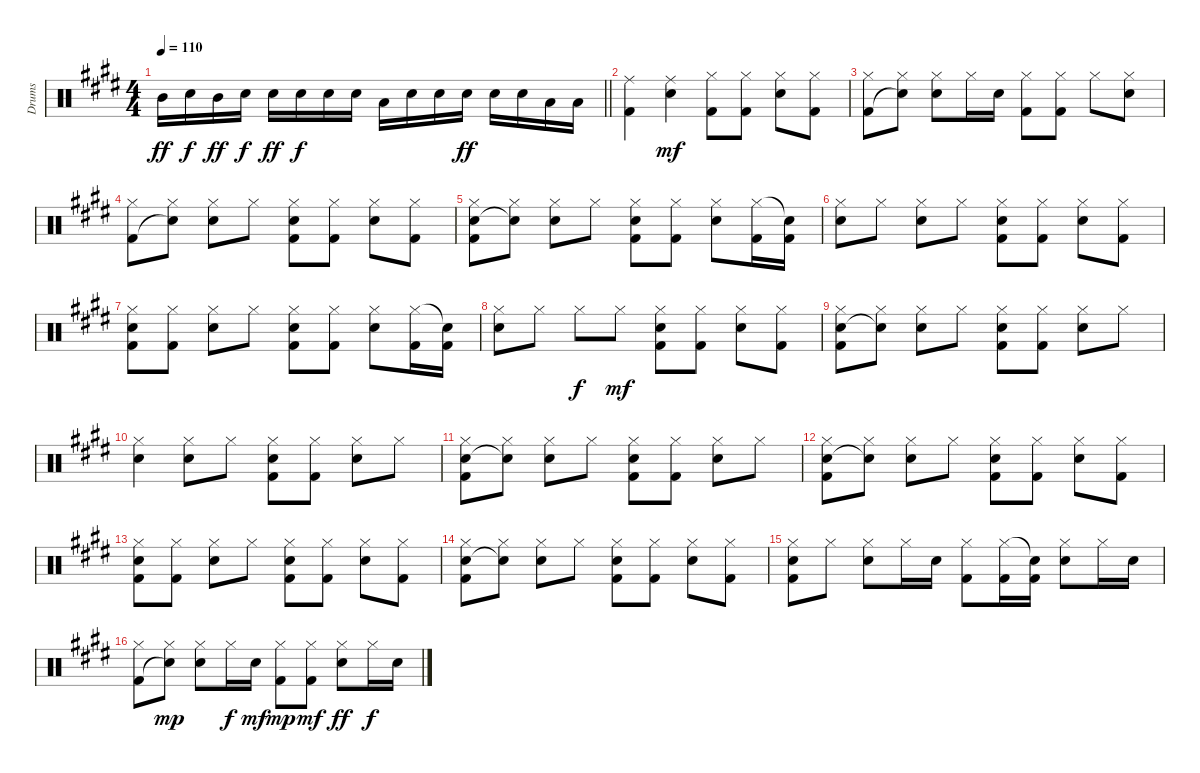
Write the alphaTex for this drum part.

\track ("Drums" "Drums") {instrument percussion}
\staff {score}
\articulation defaults
\ts (4 4)
\tempo 110
\clef neutral
\barLineRight lightlight
\ks c#minor "Mid Tom (hit)".16{dy ff} "Electric Snare (hit)".16{dy f} "Mid Tom (hit)".16{dy ff} "Electric Snare (hit)".16{dy f} "Electric Snare (hit)".16{dy ff} "Electric Snare (hit)".16{dy f} "Electric Snare (hit)".16 "Electric Snare (hit)".16 "Low Tom (hit)".16 "Electric Snare (hit)".16 "Electric Snare (hit)".16 "Electric Snare (hit)".16{dy ff} "Electric Snare (hit)".16 "Electric Snare (hit)".16 "Low Tom (hit)".16 "Low Tom (hit)".16
|
("Ride (middle)" "Kick (hit) 2").4 ("Ride (middle)" "Electric Snare (hit)").4{dy mf} ("Hi-Hat (closed)" "Kick (hit) 2").8 ("Hi-Hat (closed)" "Kick (hit) 2").8 ("Hi-Hat (closed)" "Electric Snare (hit)").8 ("Hi-Hat (closed)" "Kick (hit) 2").8 |
("Hi-Hat (closed)" "Kick (hit) 2").8 ("Hi-Hat (closed)" "Snare (hit)"{t}).8 ("Hi-Hat (closed)" "Electric Snare (hit)").8 "Hi-Hat (closed)".16 "Electric Snare (hit)".16 ("Hi-Hat (closed)" "Kick (hit) 2").8 ("Hi-Hat (closed)" "Kick (hit) 2").8 "Hi-Hat (closed)".8 ("Hi-Hat (closed)" "Electric Snare (hit)").8 |
("Hi-Hat (closed)" "Kick (hit) 2").8 ("Hi-Hat (closed)" "Snare (hit)"{t}).8 ("Hi-Hat (closed)" "Electric Snare (hit)").8 "Hi-Hat (closed)".8 ("Hi-Hat (closed)" "Electric Snare (hit)" "Kick (hit) 2").8 ("Hi-Hat (closed)" "Kick (hit) 2").8 ("Hi-Hat (closed)" "Electric Snare (hit)").8 ("Hi-Hat (closed)" "Kick (hit) 2").8 |
("Hi-Hat (closed)" "Electric Snare (hit)" "Kick (hit) 2").8 ("Hi-Hat (closed)" "Snare (hit)"{t}).8 ("Hi-Hat (closed)" "Electric Snare (hit)").8 "Hi-Hat (closed)".8 ("Hi-Hat (closed)" "Electric Snare (hit)" "Kick (hit) 2").8 ("Hi-Hat (closed)" "Kick (hit) 2").8 ("Hi-Hat (closed)" "Electric Snare (hit)").8 ("Hi-Hat (closed)" "Kick (hit) 2").16 ("Snare (hit)"{t} "Kick (hit) 2").16 |
("Hi-Hat (closed)" "Electric Snare (hit)").8 "Hi-Hat (closed)".8 ("Hi-Hat (closed)" "Electric Snare (hit)").8 "Hi-Hat (closed)".8 ("Hi-Hat (closed)" "Electric Snare (hit)" "Kick (hit) 2").8 ("Hi-Hat (closed)" "Kick (hit) 2").8 ("Hi-Hat (closed)" "Electric Snare (hit)").8 ("Hi-Hat (closed)" "Kick (hit) 2").8 |
("Hi-Hat (closed)" "Electric Snare (hit)" "Kick (hit) 2").8 ("Hi-Hat (closed)" "Kick (hit) 2").8 ("Hi-Hat (closed)" "Electric Snare (hit)").8 "Hi-Hat (closed)".8 ("Hi-Hat (closed)" "Electric Snare (hit)" "Kick (hit) 2").8 ("Hi-Hat (closed)" "Kick (hit) 2").8 ("Hi-Hat (closed)" "Electric Snare (hit)").8 ("Hi-Hat (closed)" "Kick (hit) 2").16 ("Snare (hit)"{t} "Kick (hit) 2").16 |
("Hi-Hat (closed)" "Electric Snare (hit)").8 "Hi-Hat (closed)".8 "Hi-Hat (closed)".8{dy f} "Hi-Hat (closed)".8{dy mf} ("Hi-Hat (closed)" "Electric Snare (hit)" "Kick (hit) 2").8 ("Hi-Hat (closed)" "Kick (hit) 2").8 ("Hi-Hat (closed)" "Electric Snare (hit)").8 ("Hi-Hat (closed)" "Kick (hit) 2").8 |
("Hi-Hat (closed)" "Electric Snare (hit)" "Kick (hit) 2").8 ("Hi-Hat (closed)" "Snare (hit)"{t}).8 ("Hi-Hat (closed)" "Electric Snare (hit)").8 "Hi-Hat (closed)".8 ("Hi-Hat (closed)" "Electric Snare (hit)" "Kick (hit) 2").8 ("Hi-Hat (closed)" "Kick (hit) 2").8 ("Hi-Hat (closed)" "Electric Snare (hit)").8 "Hi-Hat (closed)".8 |
("Hi-Hat (closed)" "Electric Snare (hit)").4 ("Hi-Hat (closed)" "Electric Snare (hit)").8 "Hi-Hat (closed)".8 ("Hi-Hat (closed)" "Electric Snare (hit)" "Kick (hit) 2").8 ("Hi-Hat (closed)" "Kick (hit) 2").8 ("Hi-Hat (closed)" "Electric Snare (hit)").8 "Hi-Hat (closed)".8 |
("Hi-Hat (closed)" "Electric Snare (hit)" "Kick (hit) 2").8 ("Hi-Hat (closed)" "Snare (hit)"{t}).8 ("Hi-Hat (closed)" "Electric Snare (hit)").8 "Hi-Hat (closed)".8 ("Hi-Hat (closed)" "Electric Snare (hit)" "Kick (hit) 2").8 ("Hi-Hat (closed)" "Kick (hit) 2").8 ("Hi-Hat (closed)" "Electric Snare (hit)").8 "Hi-Hat (closed)".8 |
("Hi-Hat (closed)" "Electric Snare (hit)" "Kick (hit) 2").8 ("Hi-Hat (closed)" "Snare (hit)"{t}).8 ("Hi-Hat (closed)" "Electric Snare (hit)").8 "Hi-Hat (closed)".8 ("Hi-Hat (closed)" "Electric Snare (hit)" "Kick (hit) 2").8 ("Hi-Hat (closed)" "Kick (hit) 2").8 ("Hi-Hat (closed)" "Electric Snare (hit)").8 ("Hi-Hat (closed)" "Kick (hit) 2").8 |
("Hi-Hat (closed)" "Electric Snare (hit)" "Kick (hit) 2").8 ("Hi-Hat (closed)" "Kick (hit) 2").8 ("Hi-Hat (closed)" "Electric Snare (hit)").8 "Hi-Hat (closed)".8 ("Hi-Hat (closed)" "Electric Snare (hit)" "Kick (hit) 2").8 ("Hi-Hat (closed)" "Kick (hit) 2").8 ("Hi-Hat (closed)" "Electric Snare (hit)").8 ("Hi-Hat (closed)" "Kick (hit) 2").8 |
("Hi-Hat (closed)" "Electric Snare (hit)" "Kick (hit) 2").8 ("Hi-Hat (closed)" "Snare (hit)"{t}).8 ("Hi-Hat (closed)" "Electric Snare (hit)").8 "Hi-Hat (closed)".8 ("Hi-Hat (closed)" "Electric Snare (hit)" "Kick (hit) 2").8 ("Hi-Hat (closed)" "Kick (hit) 2").8 ("Hi-Hat (closed)" "Electric Snare (hit)").8 ("Hi-Hat (closed)" "Kick (hit) 2").8 |
("Hi-Hat (closed)" "Electric Snare (hit)" "Kick (hit) 2").8 "Hi-Hat (closed)".8 ("Hi-Hat (closed)" "Electric Snare (hit)").8 "Hi-Hat (closed)".16 "Electric Snare (hit)".16 ("Hi-Hat (closed)" "Kick (hit) 2").8 ("Hi-Hat (closed)" "Kick (hit) 2").16 ("Snare (hit)"{t} "Kick (hit) 2").16 ("Hi-Hat (closed)" "Electric Snare (hit)").8 "Hi-Hat (closed)".16 "Electric Snare (hit)".16 |
("Hi-Hat (closed)" "Kick (hit) 2").8 ("Hi-Hat (closed)" "Snare (hit)"{t}).8{dy mp} ("Hi-Hat (closed)" "Electric Snare (hit)").8 "Hi-Hat (closed)".16{dy f} "Electric Snare (hit)".16{dy mf} ("Hi-Hat (closed)" "Kick (hit) 2").8{dy mp} ("Hi-Hat (closed)" "Kick (hit) 2").8{dy mf} ("Hi-Hat (closed)" "Electric Snare (hit)").8{dy ff} "Hi-Hat (closed)".16{dy f} "Electric Snare (hit)".16
